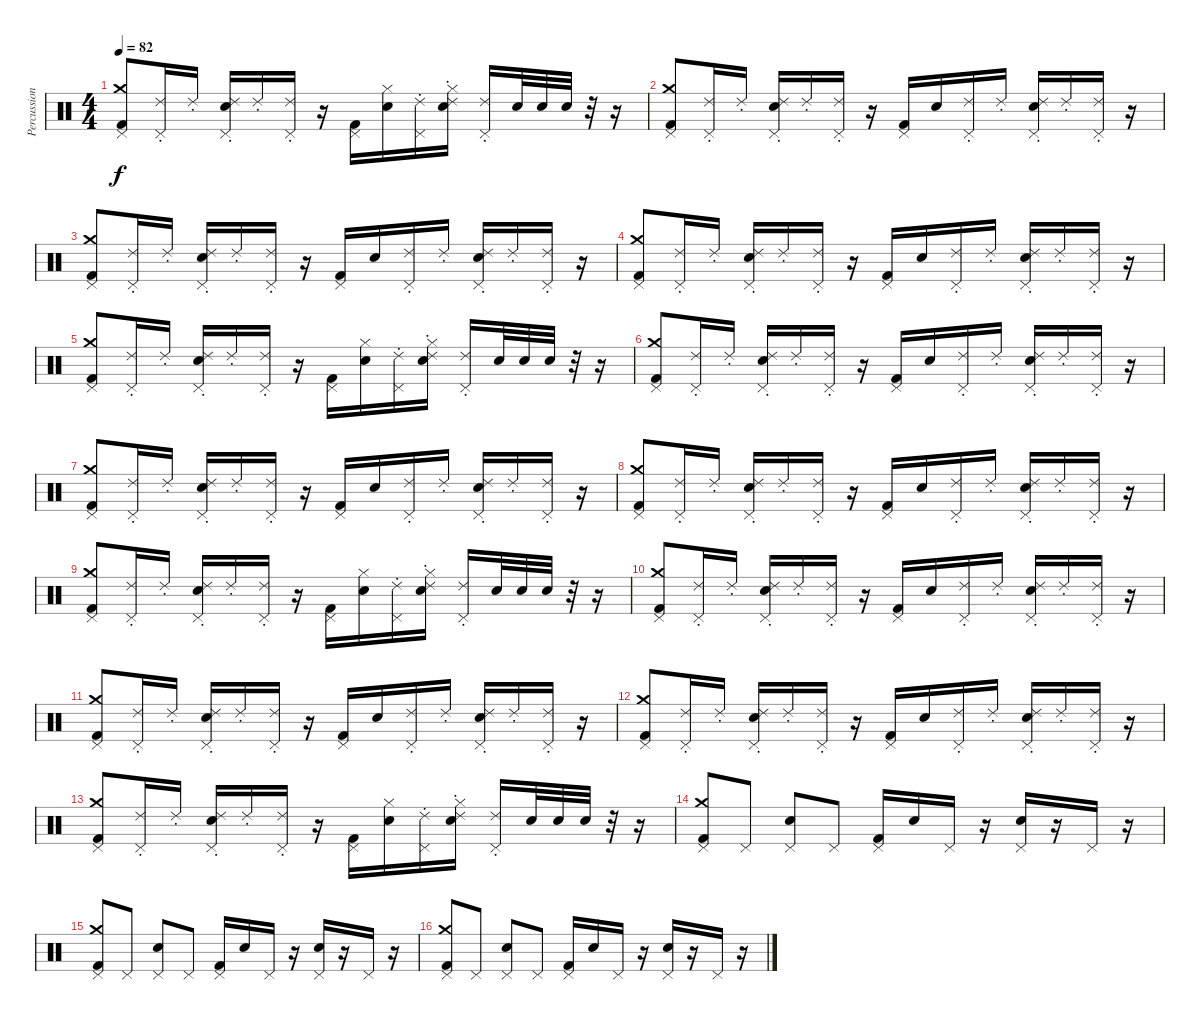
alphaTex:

\track ("Percussion" "Percussion") {instrument percussion}
\staff {score}
\articulation defaults
\ts (4 4)
\tempo 82
\clef neutral
\ks c
("Pedal Hi-Hat (hit)" "Crash medium (hit)" "Kick (hit) 2").8{dy f} ("Pedal Hi-Hat (hit)" "Ride (choke) 2").16 "Ride (choke) 2".16 ("Pedal Hi-Hat (hit)" "Electric Snare (hit)" "Ride (choke) 2").16 "Ride (choke) 2".16 ("Pedal Hi-Hat (hit)" "Ride (choke) 2").16 r.16 ("Pedal Hi-Hat (hit)" "Kick (hit) 2").16 ("Hi-Hat (closed)" "Electric Snare (hit)").16 ("Pedal Hi-Hat (hit)" "Ride (choke) 2").16 ("Hi-Hat (closed)" "Electric Snare (hit)" "Ride (choke) 2").16 ("Pedal Hi-Hat (hit)" "Ride (choke) 2").16 "Electric Snare (hit)".32 "Electric Snare (hit)".32 "Electric Snare (hit)".32 r.32 r.16 |
("Pedal Hi-Hat (hit)" "Crash medium (hit)" "Kick (hit) 2").8 ("Pedal Hi-Hat (hit)" "Ride (choke) 2").16 "Ride (choke) 2".16 ("Pedal Hi-Hat (hit)" "Electric Snare (hit)" "Ride (choke) 2").16 "Ride (choke) 2".16 ("Pedal Hi-Hat (hit)" "Ride (choke) 2").16 r.16 ("Pedal Hi-Hat (hit)" "Kick (hit) 2").16 "Electric Snare (hit)".16 ("Pedal Hi-Hat (hit)" "Ride (choke) 2").16 "Ride (choke) 2".16 ("Pedal Hi-Hat (hit)" "Electric Snare (hit)" "Ride (choke) 2").16 "Ride (choke) 2".16 ("Pedal Hi-Hat (hit)" "Ride (choke) 2").16 r.16 |
("Pedal Hi-Hat (hit)" "Crash medium (hit)" "Kick (hit) 2").8 ("Pedal Hi-Hat (hit)" "Ride (choke) 2").16 "Ride (choke) 2".16 ("Pedal Hi-Hat (hit)" "Electric Snare (hit)" "Ride (choke) 2").16 "Ride (choke) 2".16 ("Pedal Hi-Hat (hit)" "Ride (choke) 2").16 r.16 ("Pedal Hi-Hat (hit)" "Kick (hit) 2").16 "Electric Snare (hit)".16 ("Pedal Hi-Hat (hit)" "Ride (choke) 2").16 "Ride (choke) 2".16 ("Pedal Hi-Hat (hit)" "Electric Snare (hit)" "Ride (choke) 2").16 "Ride (choke) 2".16 ("Pedal Hi-Hat (hit)" "Ride (choke) 2").16 r.16 |
("Pedal Hi-Hat (hit)" "Crash medium (hit)" "Kick (hit) 2").8 ("Pedal Hi-Hat (hit)" "Ride (choke) 2").16 "Ride (choke) 2".16 ("Pedal Hi-Hat (hit)" "Electric Snare (hit)" "Ride (choke) 2").16 "Ride (choke) 2".16 ("Pedal Hi-Hat (hit)" "Ride (choke) 2").16 r.16 ("Pedal Hi-Hat (hit)" "Kick (hit) 2").16 "Electric Snare (hit)".16 ("Pedal Hi-Hat (hit)" "Ride (choke) 2").16 "Ride (choke) 2".16 ("Pedal Hi-Hat (hit)" "Electric Snare (hit)" "Ride (choke) 2").16 "Ride (choke) 2".16 ("Pedal Hi-Hat (hit)" "Ride (choke) 2").16 r.16 |
("Pedal Hi-Hat (hit)" "Crash medium (hit)" "Kick (hit) 2").8 ("Pedal Hi-Hat (hit)" "Ride (choke) 2").16 "Ride (choke) 2".16 ("Pedal Hi-Hat (hit)" "Electric Snare (hit)" "Ride (choke) 2").16 "Ride (choke) 2".16 ("Pedal Hi-Hat (hit)" "Ride (choke) 2").16 r.16 ("Pedal Hi-Hat (hit)" "Kick (hit) 2").16 ("Hi-Hat (closed)" "Electric Snare (hit)").16 ("Pedal Hi-Hat (hit)" "Ride (choke) 2").16 ("Hi-Hat (closed)" "Electric Snare (hit)" "Ride (choke) 2").16 ("Pedal Hi-Hat (hit)" "Ride (choke) 2").16 "Electric Snare (hit)".32 "Electric Snare (hit)".32 "Electric Snare (hit)".32 r.32 r.16 |
("Pedal Hi-Hat (hit)" "Crash medium (hit)" "Kick (hit) 2").8 ("Pedal Hi-Hat (hit)" "Ride (choke) 2").16 "Ride (choke) 2".16 ("Pedal Hi-Hat (hit)" "Electric Snare (hit)" "Ride (choke) 2").16 "Ride (choke) 2".16 ("Pedal Hi-Hat (hit)" "Ride (choke) 2").16 r.16 ("Pedal Hi-Hat (hit)" "Kick (hit) 2").16 "Electric Snare (hit)".16 ("Pedal Hi-Hat (hit)" "Ride (choke) 2").16 "Ride (choke) 2".16 ("Pedal Hi-Hat (hit)" "Electric Snare (hit)" "Ride (choke) 2").16 "Ride (choke) 2".16 ("Pedal Hi-Hat (hit)" "Ride (choke) 2").16 r.16 |
("Pedal Hi-Hat (hit)" "Crash medium (hit)" "Kick (hit) 2").8 ("Pedal Hi-Hat (hit)" "Ride (choke) 2").16 "Ride (choke) 2".16 ("Pedal Hi-Hat (hit)" "Electric Snare (hit)" "Ride (choke) 2").16 "Ride (choke) 2".16 ("Pedal Hi-Hat (hit)" "Ride (choke) 2").16 r.16 ("Pedal Hi-Hat (hit)" "Kick (hit) 2").16 "Electric Snare (hit)".16 ("Pedal Hi-Hat (hit)" "Ride (choke) 2").16 "Ride (choke) 2".16 ("Pedal Hi-Hat (hit)" "Electric Snare (hit)" "Ride (choke) 2").16 "Ride (choke) 2".16 ("Pedal Hi-Hat (hit)" "Ride (choke) 2").16 r.16 |
("Pedal Hi-Hat (hit)" "Crash medium (hit)" "Kick (hit) 2").8 ("Pedal Hi-Hat (hit)" "Ride (choke) 2").16 "Ride (choke) 2".16 ("Pedal Hi-Hat (hit)" "Electric Snare (hit)" "Ride (choke) 2").16 "Ride (choke) 2".16 ("Pedal Hi-Hat (hit)" "Ride (choke) 2").16 r.16 ("Pedal Hi-Hat (hit)" "Kick (hit) 2").16 "Electric Snare (hit)".16 ("Pedal Hi-Hat (hit)" "Ride (choke) 2").16 "Ride (choke) 2".16 ("Pedal Hi-Hat (hit)" "Electric Snare (hit)" "Ride (choke) 2").16 "Ride (choke) 2".16 ("Pedal Hi-Hat (hit)" "Ride (choke) 2").16 r.16 |
("Pedal Hi-Hat (hit)" "Crash medium (hit)" "Kick (hit) 2").8 ("Pedal Hi-Hat (hit)" "Ride (choke) 2").16 "Ride (choke) 2".16 ("Pedal Hi-Hat (hit)" "Electric Snare (hit)" "Ride (choke) 2").16 "Ride (choke) 2".16 ("Pedal Hi-Hat (hit)" "Ride (choke) 2").16 r.16 ("Pedal Hi-Hat (hit)" "Kick (hit) 2").16 ("Hi-Hat (closed)" "Electric Snare (hit)").16 ("Pedal Hi-Hat (hit)" "Ride (choke) 2").16 ("Hi-Hat (closed)" "Electric Snare (hit)" "Ride (choke) 2").16 ("Pedal Hi-Hat (hit)" "Ride (choke) 2").16 "Electric Snare (hit)".32 "Electric Snare (hit)".32 "Electric Snare (hit)".32 r.32 r.16 |
("Pedal Hi-Hat (hit)" "Crash medium (hit)" "Kick (hit) 2").8 ("Pedal Hi-Hat (hit)" "Ride (choke) 2").16 "Ride (choke) 2".16 ("Pedal Hi-Hat (hit)" "Electric Snare (hit)" "Ride (choke) 2").16 "Ride (choke) 2".16 ("Pedal Hi-Hat (hit)" "Ride (choke) 2").16 r.16 ("Pedal Hi-Hat (hit)" "Kick (hit) 2").16 "Electric Snare (hit)".16 ("Pedal Hi-Hat (hit)" "Ride (choke) 2").16 "Ride (choke) 2".16 ("Pedal Hi-Hat (hit)" "Electric Snare (hit)" "Ride (choke) 2").16 "Ride (choke) 2".16 ("Pedal Hi-Hat (hit)" "Ride (choke) 2").16 r.16 |
("Pedal Hi-Hat (hit)" "Crash medium (hit)" "Kick (hit) 2").8 ("Pedal Hi-Hat (hit)" "Ride (choke) 2").16 "Ride (choke) 2".16 ("Pedal Hi-Hat (hit)" "Electric Snare (hit)" "Ride (choke) 2").16 "Ride (choke) 2".16 ("Pedal Hi-Hat (hit)" "Ride (choke) 2").16 r.16 ("Pedal Hi-Hat (hit)" "Kick (hit) 2").16 "Electric Snare (hit)".16 ("Pedal Hi-Hat (hit)" "Ride (choke) 2").16 "Ride (choke) 2".16 ("Pedal Hi-Hat (hit)" "Electric Snare (hit)" "Ride (choke) 2").16 "Ride (choke) 2".16 ("Pedal Hi-Hat (hit)" "Ride (choke) 2").16 r.16 |
("Pedal Hi-Hat (hit)" "Crash medium (hit)" "Kick (hit) 2").8 ("Pedal Hi-Hat (hit)" "Ride (choke) 2").16 "Ride (choke) 2".16 ("Pedal Hi-Hat (hit)" "Electric Snare (hit)" "Ride (choke) 2").16 "Ride (choke) 2".16 ("Pedal Hi-Hat (hit)" "Ride (choke) 2").16 r.16 ("Pedal Hi-Hat (hit)" "Kick (hit) 2").16 "Electric Snare (hit)".16 ("Pedal Hi-Hat (hit)" "Ride (choke) 2").16 "Ride (choke) 2".16 ("Pedal Hi-Hat (hit)" "Electric Snare (hit)" "Ride (choke) 2").16 "Ride (choke) 2".16 ("Pedal Hi-Hat (hit)" "Ride (choke) 2").16 r.16 |
("Pedal Hi-Hat (hit)" "Crash medium (hit)" "Kick (hit) 2").8 ("Pedal Hi-Hat (hit)" "Ride (choke) 2").16 "Ride (choke) 2".16 ("Pedal Hi-Hat (hit)" "Electric Snare (hit)" "Ride (choke) 2").16 "Ride (choke) 2".16 ("Pedal Hi-Hat (hit)" "Ride (choke) 2").16 r.16 ("Pedal Hi-Hat (hit)" "Kick (hit) 2").16 ("Hi-Hat (closed)" "Electric Snare (hit)").16 ("Pedal Hi-Hat (hit)" "Ride (choke) 2").16 ("Hi-Hat (closed)" "Electric Snare (hit)" "Ride (choke) 2").16 ("Pedal Hi-Hat (hit)" "Ride (choke) 2").16 "Electric Snare (hit)".32 "Electric Snare (hit)".32 "Electric Snare (hit)".32 r.32 r.16 |
("Pedal Hi-Hat (hit)" "Crash medium (hit)" "Kick (hit) 2").8 "Pedal Hi-Hat (hit)".8 ("Pedal Hi-Hat (hit)" "Electric Snare (hit)").8 "Pedal Hi-Hat (hit)".8 ("Pedal Hi-Hat (hit)" "Kick (hit) 2").16 "Electric Snare (hit)".16 "Pedal Hi-Hat (hit)".16 r.16 ("Pedal Hi-Hat (hit)" "Electric Snare (hit)").16 r.16 "Pedal Hi-Hat (hit)".16 r.16 |
("Pedal Hi-Hat (hit)" "Crash medium (hit)" "Kick (hit) 2").8 "Pedal Hi-Hat (hit)".8 ("Pedal Hi-Hat (hit)" "Electric Snare (hit)").8 "Pedal Hi-Hat (hit)".8 ("Pedal Hi-Hat (hit)" "Kick (hit) 2").16 "Electric Snare (hit)".16 "Pedal Hi-Hat (hit)".16 r.16 ("Pedal Hi-Hat (hit)" "Electric Snare (hit)").16 r.16 "Pedal Hi-Hat (hit)".16 r.16 |
("Pedal Hi-Hat (hit)" "Crash medium (hit)" "Kick (hit) 2").8 "Pedal Hi-Hat (hit)".8 ("Pedal Hi-Hat (hit)" "Electric Snare (hit)").8 "Pedal Hi-Hat (hit)".8 ("Pedal Hi-Hat (hit)" "Kick (hit) 2").16 "Electric Snare (hit)".16 "Pedal Hi-Hat (hit)".16 r.16 ("Pedal Hi-Hat (hit)" "Electric Snare (hit)").16 r.16 "Pedal Hi-Hat (hit)".16 r.16
